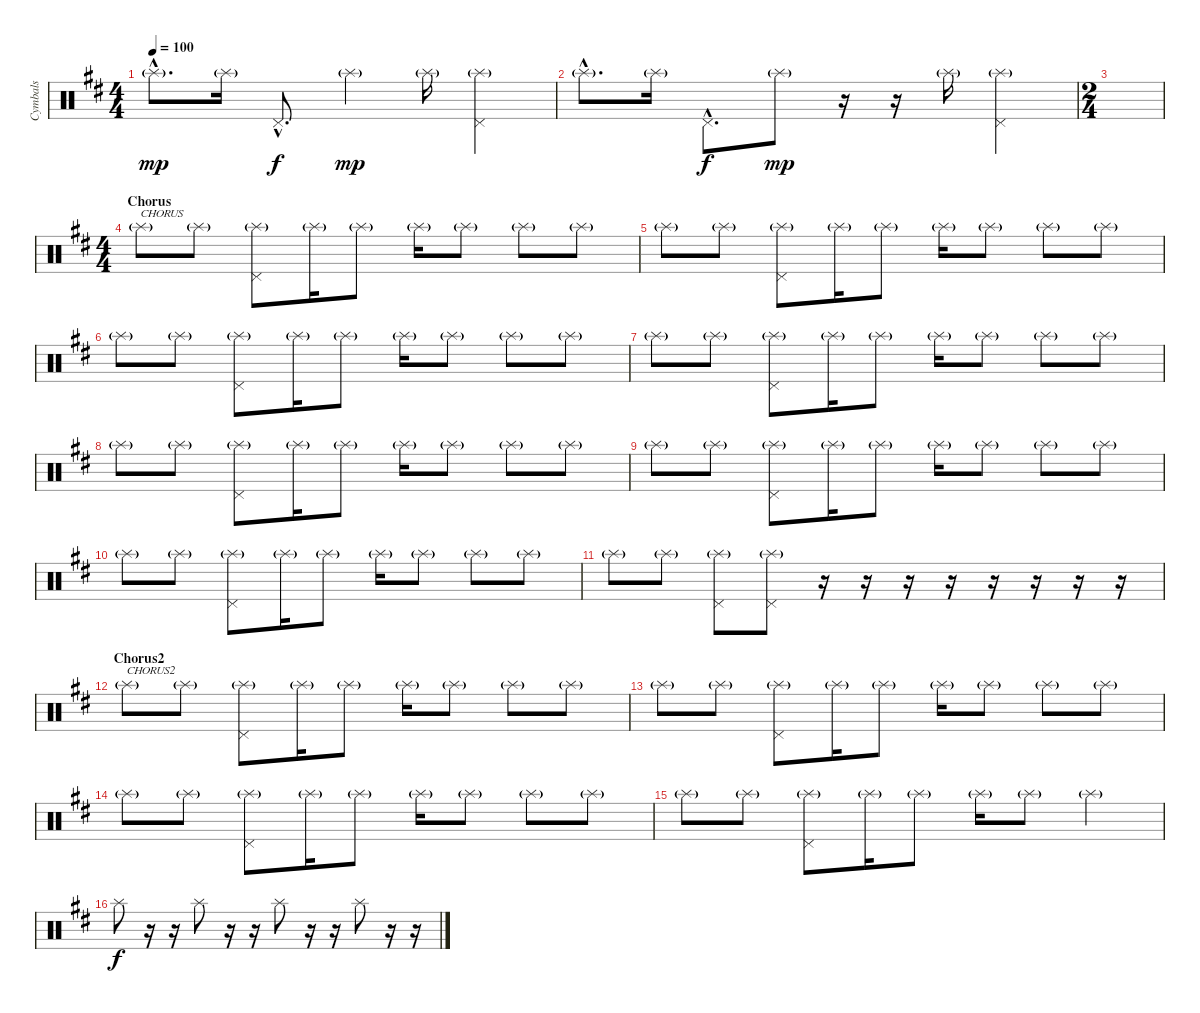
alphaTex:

\track ("Cymbals" "Cymbals") {instrument percussion}
\staff {score}
\articulation defaults
\ts (4 4)
\tempo 100
\clef neutral
\ks d "Splash (hit)"{g hac}.8{d dy mp} "Splash (hit)"{g}.16 "Pedal Hi-Hat (hit)"{hac}.8{d dy f} "Splash (hit)"{g}.4{dy mp} "Splash (hit)"{g}.16
("Pedal Hi-Hat (hit)" "Splash (hit)"{g}).4 |
"Splash (hit)"{g hac}.8{d} "Splash (hit)"{g}.16 "Pedal Hi-Hat (hit)"{hac}.8{d dy f} "Splash (hit)"{g}.8{dy mp} r.16 r.16 "Splash (hit)"{g}.16 ("Pedal Hi-Hat (hit)" "Splash (hit)"{g}).4 |
\ts (2 4)
|
\ts (4 4)
\section ("" "Chorus")
"Splash (hit)"{g}.8{txt "CHORUS"} "Splash (hit)"{g}.8 ("Splash (hit)"{g} "Pedal Hi-Hat (hit)").8 "Splash (hit)"{g}.16 "Splash (hit)"{g}.8 "Splash (hit)"{g}.16 "Splash (hit)"{g}.8 "Splash (hit)"{g}.8 "Splash (hit)"{g}.8 |
"Splash (hit)"{g}.8 "Splash (hit)"{g}.8 ("Splash (hit)"{g} "Pedal Hi-Hat (hit)").8 "Splash (hit)"{g}.16 "Splash (hit)"{g}.8 "Splash (hit)"{g}.16 "Splash (hit)"{g}.8 "Splash (hit)"{g}.8 "Splash (hit)"{g}.8 |
"Splash (hit)"{g}.8 "Splash (hit)"{g}.8 ("Splash (hit)"{g} "Pedal Hi-Hat (hit)").8 "Splash (hit)"{g}.16 "Splash (hit)"{g}.8 "Splash (hit)"{g}.16 "Splash (hit)"{g}.8 "Splash (hit)"{g}.8 "Splash (hit)"{g}.8 |
"Splash (hit)"{g}.8 "Splash (hit)"{g}.8 ("Splash (hit)"{g} "Pedal Hi-Hat (hit)").8 "Splash (hit)"{g}.16 "Splash (hit)"{g}.8 "Splash (hit)"{g}.16 "Splash (hit)"{g}.8 "Splash (hit)"{g}.8 "Splash (hit)"{g}.8 |
"Splash (hit)"{g}.8 "Splash (hit)"{g}.8 ("Splash (hit)"{g} "Pedal Hi-Hat (hit)").8 "Splash (hit)"{g}.16 "Splash (hit)"{g}.8 "Splash (hit)"{g}.16 "Splash (hit)"{g}.8 "Splash (hit)"{g}.8 "Splash (hit)"{g}.8 |
"Splash (hit)"{g}.8 "Splash (hit)"{g}.8 ("Splash (hit)"{g} "Pedal Hi-Hat (hit)").8 "Splash (hit)"{g}.16 "Splash (hit)"{g}.8 "Splash (hit)"{g}.16 "Splash (hit)"{g}.8 "Splash (hit)"{g}.8 "Splash (hit)"{g}.8 |
"Splash (hit)"{g}.8 "Splash (hit)"{g}.8 ("Splash (hit)"{g} "Pedal Hi-Hat (hit)").8 "Splash (hit)"{g}.16 "Splash (hit)"{g}.8 "Splash (hit)"{g}.16 "Splash (hit)"{g}.8 "Splash (hit)"{g}.8 "Splash (hit)"{g}.8 |
"Splash (hit)"{g}.8 "Splash (hit)"{g}.8 ("Splash (hit)"{g} "Pedal Hi-Hat (hit)").8 ("Splash (hit)"{g} "Pedal Hi-Hat (hit)").8 r.16 r.16 r.16 r.16 r.16 r.16 r.16 r.16 |
\section ("" "Chorus2")
"Splash (hit)"{g}.8{txt "CHORUS2"} "Splash (hit)"{g}.8 ("Splash (hit)"{g} "Pedal Hi-Hat (hit)").8 "Splash (hit)"{g}.16 "Splash (hit)"{g}.8 "Splash (hit)"{g}.16 "Splash (hit)"{g}.8 "Splash (hit)"{g}.8 "Splash (hit)"{g}.8 |
"Splash (hit)"{g}.8 "Splash (hit)"{g}.8 ("Splash (hit)"{g} "Pedal Hi-Hat (hit)").8 "Splash (hit)"{g}.16 "Splash (hit)"{g}.8 "Splash (hit)"{g}.16 "Splash (hit)"{g}.8 "Splash (hit)"{g}.8 "Splash (hit)"{g}.8 |
"Splash (hit)"{g}.8 "Splash (hit)"{g}.8 ("Splash (hit)"{g} "Pedal Hi-Hat (hit)").8 "Splash (hit)"{g}.16 "Splash (hit)"{g}.8 "Splash (hit)"{g}.16 "Splash (hit)"{g}.8 "Splash (hit)"{g}.8 "Splash (hit)"{g}.8 |
"Splash (hit)"{g}.8 "Splash (hit)"{g}.8 ("Splash (hit)"{g} "Pedal Hi-Hat (hit)").8 "Splash (hit)"{g}.16 "Splash (hit)"{g}.8 "Splash (hit)"{g}.16 "Splash (hit)"{g}.8 "Splash (hit)"{g}.4 |
"Splash (hit)".8{dy f} r.16 r.16 "Splash (hit)".8 r.16 r.16 "Splash (hit)".8 r.16 r.16 "Splash (hit)".8 r.16 r.16
